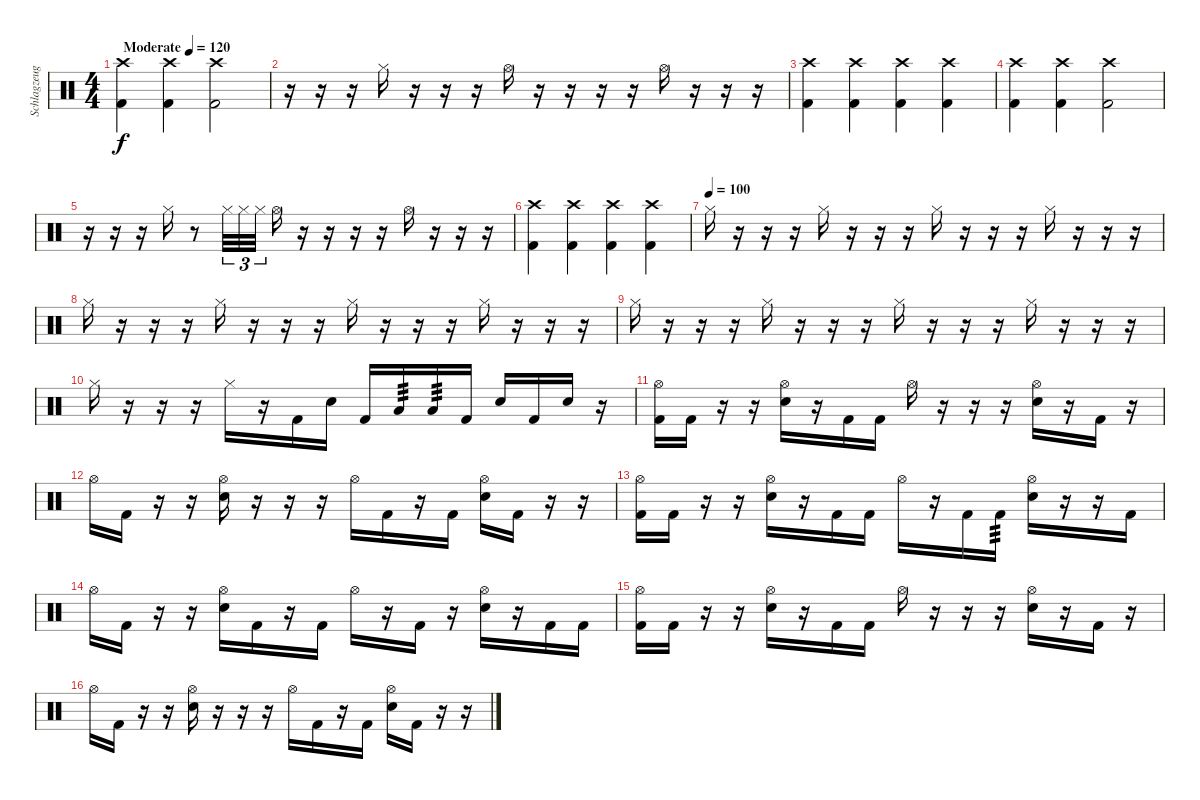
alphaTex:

\track ("Schlagzeug" "Schlagzeug") {instrument percussion}
\staff {score}
\articulation defaults
\ts (4 4)
\tempo (120 "Moderate")
\clef neutral
\ks c
("Crash high (hit)" "Kick (hit) 2").4{dy f} ("Crash high (hit)" "Kick (hit) 2").4 ("Crash high (hit)" "Kick (hit) 2").2 |
r.16 r.16 r.16 "Hi-Hat (closed)".16 r.16 r.16 r.16 "Hi-Hat (open)".16 r.16 r.16 r.16 r.16 "Hi-Hat (open)".16 r.16 r.16 r.16 |
("Crash high (hit)" "Kick (hit) 2").4 ("Crash high (hit)" "Kick (hit) 2").4 ("Crash high (hit)" "Kick (hit) 2").4 ("Crash high (hit)" "Kick (hit) 2").4 |
("Crash high (hit)" "Kick (hit) 2").4 ("Crash high (hit)" "Kick (hit) 2").4 ("Crash high (hit)" "Kick (hit) 2").2 |
r.16 r.16 r.16 "Hi-Hat (closed)".16 r.8 "Hi-Hat (closed)".32{tu (3 2)} "Hi-Hat (closed)".32{tu (3 2)} "Hi-Hat (closed)".32{tu (3 2) beam splitsecondary} "Hi-Hat (open)".16 r.16 r.16 r.16 r.16 "Hi-Hat (open)".16 r.16 r.16 r.16 |
("Crash high (hit)" "Kick (hit) 2").4 ("Crash high (hit)" "Kick (hit) 2").4 ("Crash high (hit)" "Kick (hit) 2").4 ("Crash high (hit)" "Kick (hit) 2").4 |
\tempo 120
\tempo (100)
"Hi-Hat (closed)".16 r.16 r.16 r.16 "Hi-Hat (closed)".16 r.16 r.16 r.16 "Hi-Hat (closed)".16 r.16 r.16 r.16 "Hi-Hat (closed)".16 r.16 r.16 r.16 |
"Hi-Hat (closed)".16 r.16 r.16 r.16 "Hi-Hat (closed)".16 r.16 r.16 r.16 "Hi-Hat (closed)".16 r.16 r.16 r.16 "Hi-Hat (closed)".16 r.16 r.16 r.16 |
"Hi-Hat (closed)".16 r.16 r.16 r.16 "Hi-Hat (closed)".16 r.16 r.16 r.16 "Hi-Hat (closed)".16 r.16 r.16 r.16 "Hi-Hat (closed)".16 r.16 r.16 r.16 |
"Hi-Hat (closed)".16 r.16 r.16 r.16 "Hi-Hat (closed)".16 r.16 "Kick (hit) 2".16 "Snare (hit) 2".16 "Kick (hit) 2".16 "Low Tom (hit)".16{tp 3} "Low Tom (hit)".16{tp 3} "Kick (hit) 2".16 "Snare (hit) 2".16 "Kick (hit) 2".16 "Snare (hit) 2".16 r.16 |
("Hi-Hat (open)" "Kick (hit) 2").16 "Kick (hit) 2".16 r.16 r.16 ("Hi-Hat (open)" "Snare (hit) 2").16 r.16 "Kick (hit) 2".16 "Kick (hit) 2".16 "Hi-Hat (open)".16 r.16 r.16 r.16 ("Hi-Hat (open)" "Snare (hit) 2").16 r.16 "Kick (hit) 2".16 r.16 |
"Hi-Hat (open)".16 "Kick (hit) 2".16 r.16 r.16 ("Hi-Hat (open)" "Snare (hit) 2").16 r.16 r.16 r.16 "Hi-Hat (open)".16 "Kick (hit) 2".16 r.16 "Kick (hit) 2".16 ("Hi-Hat (open)" "Snare (hit) 2").16 "Kick (hit) 2".16 r.16 r.16 |
("Hi-Hat (open)" "Kick (hit) 2").16 "Kick (hit) 2".16 r.16 r.16 ("Hi-Hat (open)" "Snare (hit) 2").16 r.16 "Kick (hit) 2".16 "Kick (hit) 2".16 "Hi-Hat (open)".16 r.16 "Kick (hit) 2".16 "Kick (hit) 2".16{tp 3} ("Hi-Hat (open)" "Snare (hit) 2").16 r.16 r.16 "Kick (hit) 2".16 |
"Hi-Hat (open)".16 "Kick (hit) 2".16 r.16 r.16 ("Hi-Hat (open)" "Snare (hit) 2").16 "Kick (hit) 2".16 r.16 "Kick (hit) 2".16 "Hi-Hat (open)".16 r.16 "Kick (hit) 2".16 r.16 ("Hi-Hat (open)" "Snare (hit) 2").16 r.16 "Kick (hit) 2".16 "Kick (hit) 2".16 |
("Hi-Hat (open)" "Kick (hit) 2").16 "Kick (hit) 2".16 r.16 r.16 ("Hi-Hat (open)" "Snare (hit) 2").16 r.16 "Kick (hit) 2".16 "Kick (hit) 2".16 "Hi-Hat (open)".16 r.16 r.16 r.16 ("Hi-Hat (open)" "Snare (hit) 2").16 r.16 "Kick (hit) 2".16 r.16 |
"Hi-Hat (open)".16 "Kick (hit) 2".16 r.16 r.16 ("Hi-Hat (open)" "Snare (hit) 2").16 r.16 r.16 r.16 "Hi-Hat (open)".16 "Kick (hit) 2".16 r.16 "Kick (hit) 2".16 ("Hi-Hat (open)" "Snare (hit) 2").16 "Kick (hit) 2".16 r.16 r.16
